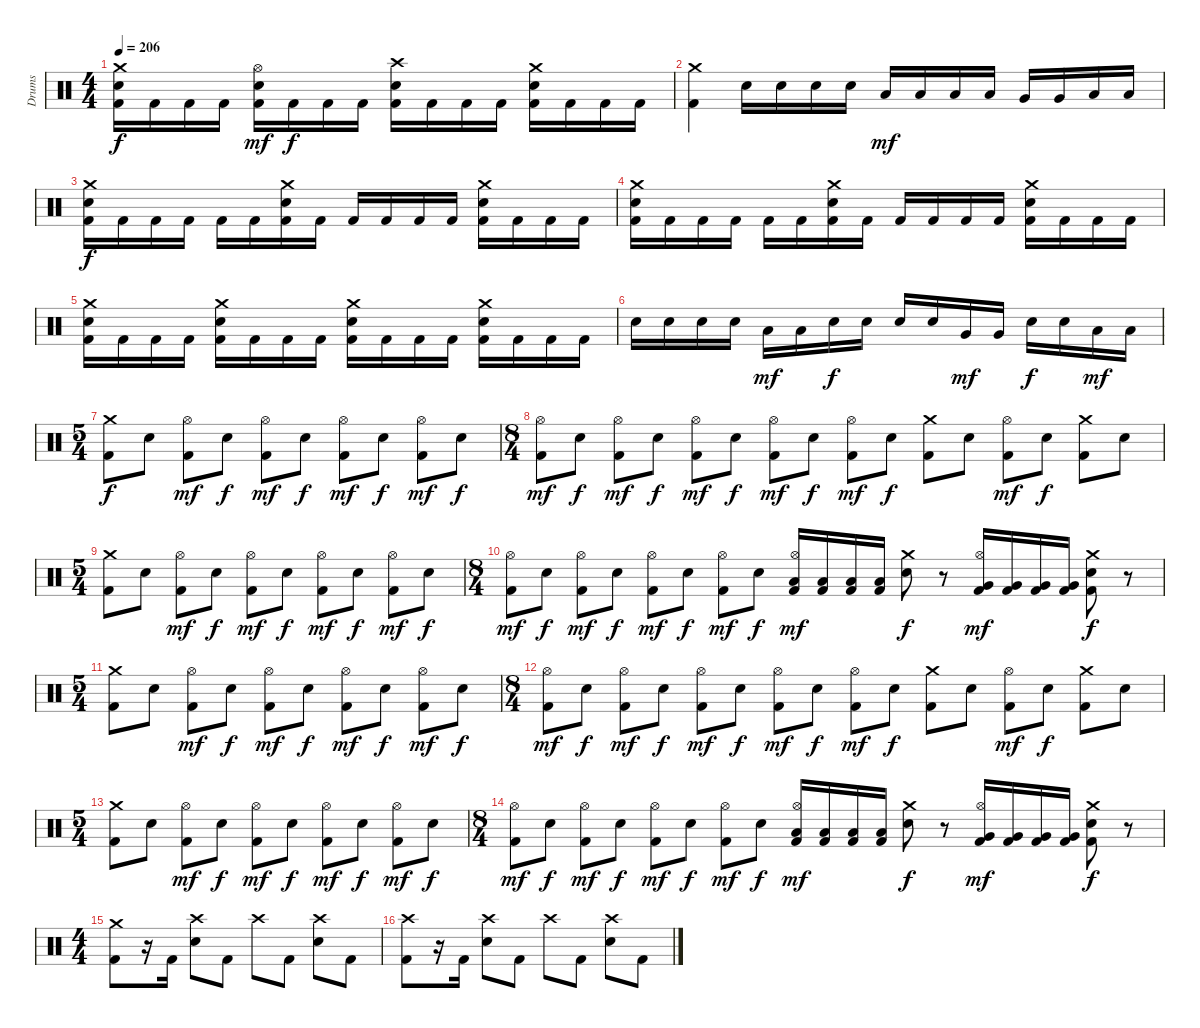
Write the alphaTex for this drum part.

\track ("Drums" "Drums") {instrument percussion}
\staff {score}
\articulation defaults
\ts (4 4)
\tempo 206
\clef neutral
\ks c
("Crash medium (hit)" "Snare (hit) 2" "Kick (hit) 2").16{dy f} "Kick (hit) 2".16 "Kick (hit) 2".16 "Kick (hit) 2".16 ("Hi-Hat (open)" "Snare (hit) 2" "Kick (hit) 2").16{dy mf} "Kick (hit) 2".16{dy f} "Kick (hit) 2".16 "Kick (hit) 2".16 ("Crash high (hit)" "Snare (hit) 2" "Kick (hit) 2").16 "Kick (hit) 2".16 "Kick (hit) 2".16 "Kick (hit) 2".16 ("Crash medium (hit)" "Snare (hit) 2" "Kick (hit) 2").16 "Kick (hit) 2".16 "Kick (hit) 2".16 "Kick (hit) 2".16 |
("Crash medium (hit)" "Kick (hit) 2").4 "Snare (hit) 2".16 "Snare (hit) 2".16 "Snare (hit) 2".16 "Snare (hit) 2".16 "Low Tom (hit)".16{dy mf} "Low Tom (hit)".16 "Low Tom (hit)".16 "Low Tom (hit)".16 "Very Low Tom (hit)".16 "Very Low Tom (hit)".16 "Low Floor Tom (hit)".16 "Low Floor Tom (hit)".16 |
("Crash medium (hit)" "Snare (hit) 2" "Kick (hit) 2").16{dy f} "Kick (hit) 2".16 "Kick (hit) 2".16 "Kick (hit) 2".16 "Kick (hit) 2".16 "Kick (hit) 2".16 ("Crash medium (hit)" "Snare (hit) 2" "Kick (hit) 2").16 "Kick (hit) 2".16 "Kick (hit) 2".16 "Kick (hit) 2".16 "Kick (hit) 2".16 "Kick (hit) 2".16 ("Crash medium (hit)" "Snare (hit) 2" "Kick (hit) 2").16 "Kick (hit) 2".16 "Kick (hit) 2".16 "Kick (hit) 2".16 |
("Crash medium (hit)" "Snare (hit) 2" "Kick (hit) 2").16 "Kick (hit) 2".16 "Kick (hit) 2".16 "Kick (hit) 2".16 "Kick (hit) 2".16 "Kick (hit) 2".16 ("Crash medium (hit)" "Snare (hit) 2" "Kick (hit) 2").16 "Kick (hit) 2".16 "Kick (hit) 2".16 "Kick (hit) 2".16 "Kick (hit) 2".16 "Kick (hit) 2".16 ("Crash medium (hit)" "Snare (hit) 2" "Kick (hit) 2").16 "Kick (hit) 2".16 "Kick (hit) 2".16 "Kick (hit) 2".16 |
("Crash medium (hit)" "Snare (hit) 2" "Kick (hit) 2").16 "Kick (hit) 2".16 "Kick (hit) 2".16 "Kick (hit) 2".16 ("Crash medium (hit)" "Snare (hit) 2" "Kick (hit) 2").16 "Kick (hit) 2".16 "Kick (hit) 2".16 "Kick (hit) 2".16 ("Crash medium (hit)" "Snare (hit) 2" "Kick (hit) 2").16 "Kick (hit) 2".16 "Kick (hit) 2".16 "Kick (hit) 2".16 ("Crash medium (hit)" "Snare (hit) 2" "Kick (hit) 2").16 "Kick (hit) 2".16 "Kick (hit) 2".16 "Kick (hit) 2".16 |
"Snare (hit) 2".16 "Snare (hit) 2".16 "Snare (hit) 2".16 "Snare (hit) 2".16 "Low Tom (hit)".16{dy mf} "Low Tom (hit)".16 "Snare (hit) 2".16{dy f} "Snare (hit) 2".16 "Snare (hit) 2".16 "Snare (hit) 2".16 "Very Low Tom (hit)".16{dy mf} "Very Low Tom (hit)".16 "Snare (hit) 2".16{dy f} "Snare (hit) 2".16 "Low Floor Tom (hit)".16{dy mf} "Low Floor Tom (hit)".16 |
\ts (5 4)
("Crash medium (hit)" "Kick (hit) 2").8{dy f} "Snare (hit) 2".8 ("Hi-Hat (open)" "Kick (hit) 2").8{dy mf} "Snare (hit) 2".8{dy f} ("Hi-Hat (open)" "Kick (hit) 2").8{dy mf} "Snare (hit) 2".8{dy f} ("Hi-Hat (open)" "Kick (hit) 2").8{dy mf} "Snare (hit) 2".8{dy f} ("Hi-Hat (open)" "Kick (hit) 2").8{dy mf} "Snare (hit) 2".8{dy f} |
\ts (8 4)
("Hi-Hat (open)" "Kick (hit) 2").8{dy mf} "Snare (hit) 2".8{dy f} ("Hi-Hat (open)" "Kick (hit) 2").8{dy mf} "Snare (hit) 2".8{dy f} ("Hi-Hat (open)" "Kick (hit) 2").8{dy mf} "Snare (hit) 2".8{dy f} ("Hi-Hat (open)" "Kick (hit) 2").8{dy mf} "Snare (hit) 2".8{dy f} ("Hi-Hat (open)" "Kick (hit) 2").8{dy mf} "Snare (hit) 2".8{dy f} ("Crash medium (hit)" "Kick (hit) 2").8 "Snare (hit) 2".8 ("Hi-Hat (open)" "Kick (hit) 2").8{dy mf} "Snare (hit) 2".8{dy f} ("Crash medium (hit)" "Kick (hit) 2").8 "Snare (hit) 2".8 |
\ts (5 4)
("Crash medium (hit)" "Kick (hit) 2").8 "Snare (hit) 2".8 ("Hi-Hat (open)" "Kick (hit) 2").8{dy mf} "Snare (hit) 2".8{dy f} ("Hi-Hat (open)" "Kick (hit) 2").8{dy mf} "Snare (hit) 2".8{dy f} ("Hi-Hat (open)" "Kick (hit) 2").8{dy mf} "Snare (hit) 2".8{dy f} ("Hi-Hat (open)" "Kick (hit) 2").8{dy mf} "Snare (hit) 2".8{dy f} |
\ts (8 4)
("Hi-Hat (open)" "Kick (hit) 2").8{dy mf} "Snare (hit) 2".8{dy f} ("Hi-Hat (open)" "Kick (hit) 2").8{dy mf} "Snare (hit) 2".8{dy f} ("Hi-Hat (open)" "Kick (hit) 2").8{dy mf} "Snare (hit) 2".8{dy f} ("Hi-Hat (open)" "Kick (hit) 2").8{dy mf} "Snare (hit) 2".8{dy f} ("Hi-Hat (open)" "Low Tom (hit)" "Kick (hit) 2").16{dy mf} ("Low Tom (hit)" "Kick (hit) 2").16 ("Low Tom (hit)" "Kick (hit) 2").16 ("Low Tom (hit)" "Kick (hit) 2").16 ("Crash medium (hit)" "Snare (hit) 2").8{dy f} r.8 ("Hi-Hat (open)" "Very Low Tom (hit)" "Kick (hit) 2").16{dy mf} ("Very Low Tom (hit)" "Kick (hit) 2").16 ("Very Low Tom (hit)" "Kick (hit) 2").16 ("Very Low Tom (hit)" "Kick (hit) 2").16 ("Crash medium (hit)" "Snare (hit) 2" "Kick (hit) 2").8{dy f} r.8 |
\ts (5 4)
("Crash medium (hit)" "Kick (hit) 2").8 "Snare (hit) 2".8 ("Hi-Hat (open)" "Kick (hit) 2").8{dy mf} "Snare (hit) 2".8{dy f} ("Hi-Hat (open)" "Kick (hit) 2").8{dy mf} "Snare (hit) 2".8{dy f} ("Hi-Hat (open)" "Kick (hit) 2").8{dy mf} "Snare (hit) 2".8{dy f} ("Hi-Hat (open)" "Kick (hit) 2").8{dy mf} "Snare (hit) 2".8{dy f} |
\ts (8 4)
("Hi-Hat (open)" "Kick (hit) 2").8{dy mf} "Snare (hit) 2".8{dy f} ("Hi-Hat (open)" "Kick (hit) 2").8{dy mf} "Snare (hit) 2".8{dy f} ("Hi-Hat (open)" "Kick (hit) 2").8{dy mf} "Snare (hit) 2".8{dy f} ("Hi-Hat (open)" "Kick (hit) 2").8{dy mf} "Snare (hit) 2".8{dy f} ("Hi-Hat (open)" "Kick (hit) 2").8{dy mf} "Snare (hit) 2".8{dy f} ("Crash medium (hit)" "Kick (hit) 2").8 "Snare (hit) 2".8 ("Hi-Hat (open)" "Kick (hit) 2").8{dy mf} "Snare (hit) 2".8{dy f} ("Crash medium (hit)" "Kick (hit) 2").8 "Snare (hit) 2".8 |
\ts (5 4)
("Crash medium (hit)" "Kick (hit) 2").8 "Snare (hit) 2".8 ("Hi-Hat (open)" "Kick (hit) 2").8{dy mf} "Snare (hit) 2".8{dy f} ("Hi-Hat (open)" "Kick (hit) 2").8{dy mf} "Snare (hit) 2".8{dy f} ("Hi-Hat (open)" "Kick (hit) 2").8{dy mf} "Snare (hit) 2".8{dy f} ("Hi-Hat (open)" "Kick (hit) 2").8{dy mf} "Snare (hit) 2".8{dy f} |
\ts (8 4)
("Hi-Hat (open)" "Kick (hit) 2").8{dy mf} "Snare (hit) 2".8{dy f} ("Hi-Hat (open)" "Kick (hit) 2").8{dy mf} "Snare (hit) 2".8{dy f} ("Hi-Hat (open)" "Kick (hit) 2").8{dy mf} "Snare (hit) 2".8{dy f} ("Hi-Hat (open)" "Kick (hit) 2").8{dy mf} "Snare (hit) 2".8{dy f} ("Hi-Hat (open)" "Low Tom (hit)" "Kick (hit) 2").16{dy mf} ("Low Tom (hit)" "Kick (hit) 2").16 ("Low Tom (hit)" "Kick (hit) 2").16 ("Low Tom (hit)" "Kick (hit) 2").16 ("Crash medium (hit)" "Snare (hit) 2").8{dy f} r.8 ("Hi-Hat (open)" "Very Low Tom (hit)" "Kick (hit) 2").16{dy mf} ("Very Low Tom (hit)" "Kick (hit) 2").16 ("Very Low Tom (hit)" "Kick (hit) 2").16 ("Very Low Tom (hit)" "Kick (hit) 2").16 ("Crash medium (hit)" "Snare (hit) 2" "Kick (hit) 2").8{dy f} r.8 |
\ts (4 4)
("Crash medium (hit)" "Kick (hit) 2").8 r.16 "Kick (hit) 2".16 ("Crash high (hit)" "Snare (hit) 2").8 "Kick (hit) 2".8 "Crash high (hit)".8 "Kick (hit) 2".8 ("Crash high (hit)" "Snare (hit) 2").8 "Kick (hit) 2".8 |
("Crash high (hit)" "Kick (hit) 2").8 r.16 "Kick (hit) 2".16 ("Crash high (hit)" "Snare (hit) 2").8 "Kick (hit) 2".8 "Crash high (hit)".8 "Kick (hit) 2".8 ("Crash high (hit)" "Snare (hit) 2").8 "Kick (hit) 2".8
